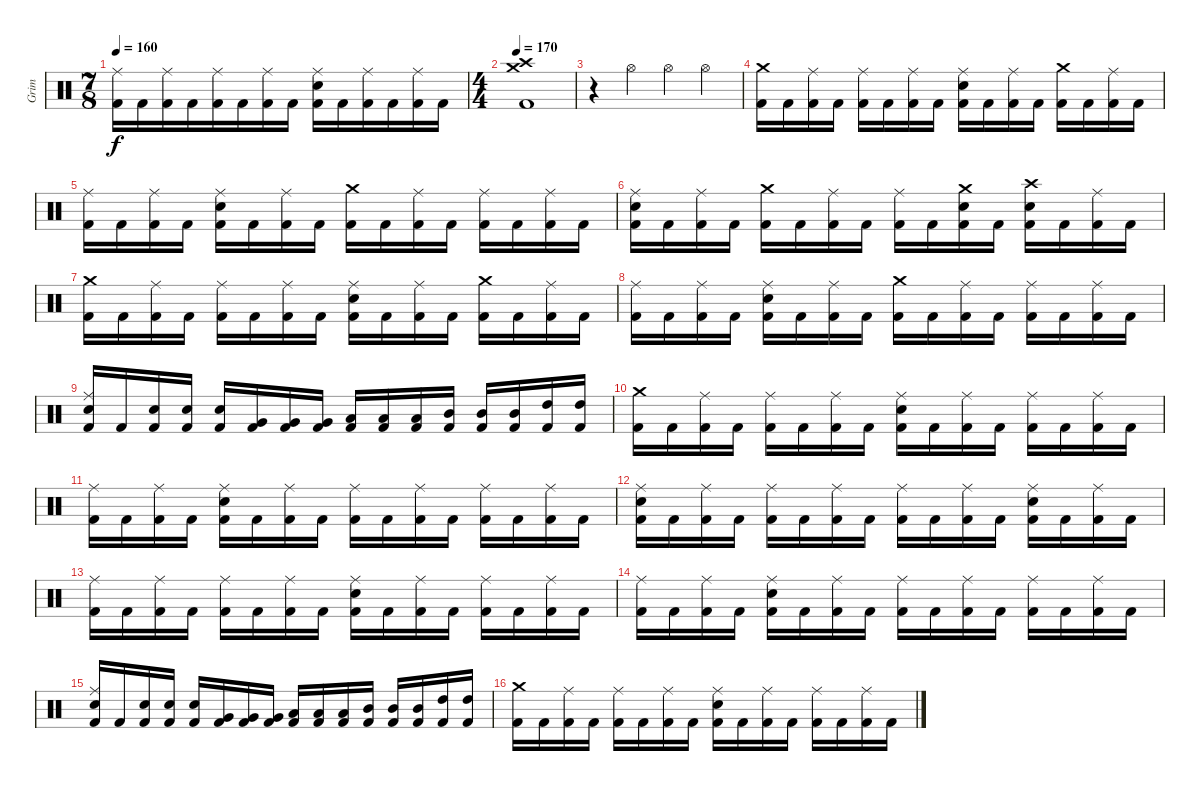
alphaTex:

\track ("Grim" "Grim") {instrument percussion}
\staff {score}
\articulation defaults
\ts (7 8)
\tempo 160
\clef neutral
\ks c
("Kick (hit) 2" "Ride (middle)").16{dy f} "Kick (hit) 2".16 ("Kick (hit) 2" "Ride (middle)").16 "Kick (hit) 2".16 ("Kick (hit) 2" "Ride (middle)").16 "Kick (hit) 2".16 ("Kick (hit) 2" "Ride (middle)").16 "Kick (hit) 2".16 ("Kick (hit) 2" "Electric Snare (hit)" "Ride (middle)").16 "Kick (hit) 2".16 ("Kick (hit) 2" "Ride (middle)").16 "Kick (hit) 2".16 ("Kick (hit) 2" "Ride (middle)").16 "Kick (hit) 2".16 |
\ts (4 4)
\tempo 170
("Kick (hit) 2" "Crash high (hit)" "Crash medium (hit)").1 |
r.4 "Hi-Hat (open)".4 "Hi-Hat (open)".4 "Hi-Hat (open)".4 |
("Kick (hit) 2" "Crash medium (hit)").16 "Kick (hit) 2".16 ("Kick (hit) 2" "Ride (middle)").16 "Kick (hit) 2".16 ("Kick (hit) 2" "Ride (middle)").16 "Kick (hit) 2".16 ("Kick (hit) 2" "Ride (middle)").16 "Kick (hit) 2".16 ("Kick (hit) 2" "Electric Snare (hit)" "Ride (middle)").16 "Kick (hit) 2".16 ("Kick (hit) 2" "Ride (middle)").16 "Kick (hit) 2".16 ("Kick (hit) 2" "Crash medium (hit)").16 "Kick (hit) 2".16 ("Kick (hit) 2" "Ride (middle)").16 "Kick (hit) 2".16 |
("Kick (hit) 2" "Ride (middle)").16 "Kick (hit) 2".16 ("Kick (hit) 2" "Ride (middle)").16 "Kick (hit) 2".16 ("Kick (hit) 2" "Electric Snare (hit)" "Ride (middle)").16 "Kick (hit) 2".16 ("Kick (hit) 2" "Ride (middle)").16 "Kick (hit) 2".16 ("Kick (hit) 2" "Crash medium (hit)").16 "Kick (hit) 2".16 ("Kick (hit) 2" "Ride (middle)").16 "Kick (hit) 2".16 ("Kick (hit) 2" "Ride (middle)").16 "Kick (hit) 2".16 ("Kick (hit) 2" "Ride (middle)").16 "Kick (hit) 2".16 |
("Kick (hit) 2" "Electric Snare (hit)" "Ride (middle)").16 "Kick (hit) 2".16 ("Kick (hit) 2" "Ride (middle)").16 "Kick (hit) 2".16 ("Kick (hit) 2" "Crash medium (hit)").16 "Kick (hit) 2".16 ("Kick (hit) 2" "Ride (middle)").16 "Kick (hit) 2".16 ("Kick (hit) 2" "Ride (middle)").16 "Kick (hit) 2".16 ("Kick (hit) 2" "Electric Snare (hit)" "Crash medium (hit)").16 "Kick (hit) 2".16 ("Kick (hit) 2" "Electric Snare (hit)" "Crash high (hit)").16 "Kick (hit) 2".16 ("Kick (hit) 2" "Ride (middle)").16 "Kick (hit) 2".16 |
("Kick (hit) 2" "Crash medium (hit)").16 "Kick (hit) 2".16 ("Kick (hit) 2" "Ride (middle)").16 "Kick (hit) 2".16 ("Kick (hit) 2" "Ride (middle)").16 "Kick (hit) 2".16 ("Kick (hit) 2" "Ride (middle)").16 "Kick (hit) 2".16 ("Kick (hit) 2" "Electric Snare (hit)" "Ride (middle)").16 "Kick (hit) 2".16 ("Kick (hit) 2" "Ride (middle)").16 "Kick (hit) 2".16 ("Kick (hit) 2" "Crash medium (hit)").16 "Kick (hit) 2".16 ("Kick (hit) 2" "Ride (middle)").16 "Kick (hit) 2".16 |
("Kick (hit) 2" "Ride (middle)").16 "Kick (hit) 2".16 ("Kick (hit) 2" "Ride (middle)").16 "Kick (hit) 2".16 ("Kick (hit) 2" "Electric Snare (hit)" "Ride (middle)").16 "Kick (hit) 2".16 ("Kick (hit) 2" "Ride (middle)").16 "Kick (hit) 2".16 ("Kick (hit) 2" "Crash medium (hit)").16 "Kick (hit) 2".16 ("Kick (hit) 2" "Ride (middle)").16 "Kick (hit) 2".16 ("Kick (hit) 2" "Ride (middle)").16 "Kick (hit) 2".16 ("Kick (hit) 2" "Ride (middle)").16 "Kick (hit) 2".16 |
("Kick (hit) 2" "Electric Snare (hit)" "Ride (middle)").16 "Kick (hit) 2".16 ("Kick (hit) 2" "Electric Snare (hit)").16 ("Kick (hit) 2" "Electric Snare (hit)").16 ("Kick (hit) 2" "Electric Snare (hit)").16 ("Kick (hit) 2" "Very Low Tom (hit)").16 ("Kick (hit) 2" "Very Low Tom (hit)").16 ("Kick (hit) 2" "Very Low Tom (hit)").16 ("Kick (hit) 2" "Low Tom (hit)").16 ("Kick (hit) 2" "Low Tom (hit)").16 ("Kick (hit) 2" "Low Tom (hit)").16 ("Kick (hit) 2" "Mid Tom (hit)").16 ("Kick (hit) 2" "Mid Tom (hit)").16 ("Kick (hit) 2" "Mid Tom (hit)").16 ("Kick (hit) 2" "High Tom (hit)").16 ("Kick (hit) 2" "High Tom (hit)").16 |
("Kick (hit) 2" "Crash medium (hit)").16 "Kick (hit) 2".16 ("Kick (hit) 2" "Ride (middle)").16 "Kick (hit) 2".16 ("Kick (hit) 2" "Ride (middle)").16 "Kick (hit) 2".16 ("Kick (hit) 2" "Ride (middle)").16 "Kick (hit) 2".16 ("Kick (hit) 2" "Electric Snare (hit)" "Ride (middle)").16 "Kick (hit) 2".16 ("Kick (hit) 2" "Ride (middle)").16 "Kick (hit) 2".16 ("Kick (hit) 2" "Ride (middle)").16 "Kick (hit) 2".16 ("Kick (hit) 2" "Ride (middle)").16 "Kick (hit) 2".16 |
("Kick (hit) 2" "Ride (middle)").16 "Kick (hit) 2".16 ("Kick (hit) 2" "Ride (middle)").16 "Kick (hit) 2".16 ("Kick (hit) 2" "Electric Snare (hit)" "Ride (middle)").16 "Kick (hit) 2".16 ("Kick (hit) 2" "Ride (middle)").16 "Kick (hit) 2".16 ("Kick (hit) 2" "Ride (middle)").16 "Kick (hit) 2".16 ("Kick (hit) 2" "Ride (middle)").16 "Kick (hit) 2".16 ("Kick (hit) 2" "Ride (middle)").16 "Kick (hit) 2".16 ("Kick (hit) 2" "Ride (middle)").16 "Kick (hit) 2".16 |
("Kick (hit) 2" "Electric Snare (hit)" "Ride (middle)").16 "Kick (hit) 2".16 ("Kick (hit) 2" "Ride (middle)").16 "Kick (hit) 2".16 ("Kick (hit) 2" "Ride (middle)").16 "Kick (hit) 2".16 ("Kick (hit) 2" "Ride (middle)").16 "Kick (hit) 2".16 ("Kick (hit) 2" "Ride (middle)").16 "Kick (hit) 2".16 ("Kick (hit) 2" "Ride (middle)").16 "Kick (hit) 2".16 ("Kick (hit) 2" "Electric Snare (hit)" "Ride (middle)").16 "Kick (hit) 2".16 ("Kick (hit) 2" "Ride (middle)").16 "Kick (hit) 2".16 |
("Kick (hit) 2" "Ride (middle)").16 "Kick (hit) 2".16 ("Kick (hit) 2" "Ride (middle)").16 "Kick (hit) 2".16 ("Kick (hit) 2" "Ride (middle)").16 "Kick (hit) 2".16 ("Kick (hit) 2" "Ride (middle)").16 "Kick (hit) 2".16 ("Kick (hit) 2" "Electric Snare (hit)" "Ride (middle)").16 "Kick (hit) 2".16 ("Kick (hit) 2" "Ride (middle)").16 "Kick (hit) 2".16 ("Kick (hit) 2" "Ride (middle)").16 "Kick (hit) 2".16 ("Kick (hit) 2" "Ride (middle)").16 "Kick (hit) 2".16 |
("Kick (hit) 2" "Ride (middle)").16 "Kick (hit) 2".16 ("Kick (hit) 2" "Ride (middle)").16 "Kick (hit) 2".16 ("Kick (hit) 2" "Electric Snare (hit)" "Ride (middle)").16 "Kick (hit) 2".16 ("Kick (hit) 2" "Ride (middle)").16 "Kick (hit) 2".16 ("Kick (hit) 2" "Ride (middle)").16 "Kick (hit) 2".16 ("Kick (hit) 2" "Ride (middle)").16 "Kick (hit) 2".16 ("Kick (hit) 2" "Ride (middle)").16 "Kick (hit) 2".16 ("Kick (hit) 2" "Ride (middle)").16 "Kick (hit) 2".16 |
("Kick (hit) 2" "Electric Snare (hit)" "Ride (middle)").16 "Kick (hit) 2".16 ("Kick (hit) 2" "Electric Snare (hit)").16 ("Kick (hit) 2" "Electric Snare (hit)").16 ("Kick (hit) 2" "Electric Snare (hit)").16 ("Kick (hit) 2" "Very Low Tom (hit)").16 ("Kick (hit) 2" "Very Low Tom (hit)").16 ("Kick (hit) 2" "Very Low Tom (hit)").16 ("Kick (hit) 2" "Low Tom (hit)").16 ("Kick (hit) 2" "Low Tom (hit)").16 ("Kick (hit) 2" "Low Tom (hit)").16 ("Kick (hit) 2" "Mid Tom (hit)").16 ("Kick (hit) 2" "Mid Tom (hit)").16 ("Kick (hit) 2" "Mid Tom (hit)").16 ("Kick (hit) 2" "High Tom (hit)").16 ("Kick (hit) 2" "High Tom (hit)").16 |
("Kick (hit) 2" "Crash medium (hit)").16 "Kick (hit) 2".16 ("Kick (hit) 2" "Ride (middle)").16 "Kick (hit) 2".16 ("Kick (hit) 2" "Ride (middle)").16 "Kick (hit) 2".16 ("Kick (hit) 2" "Ride (middle)").16 "Kick (hit) 2".16 ("Kick (hit) 2" "Electric Snare (hit)" "Ride (middle)").16 "Kick (hit) 2".16 ("Kick (hit) 2" "Ride (middle)").16 "Kick (hit) 2".16 ("Kick (hit) 2" "Ride (middle)").16 "Kick (hit) 2".16 ("Kick (hit) 2" "Ride (middle)").16 "Kick (hit) 2".16
